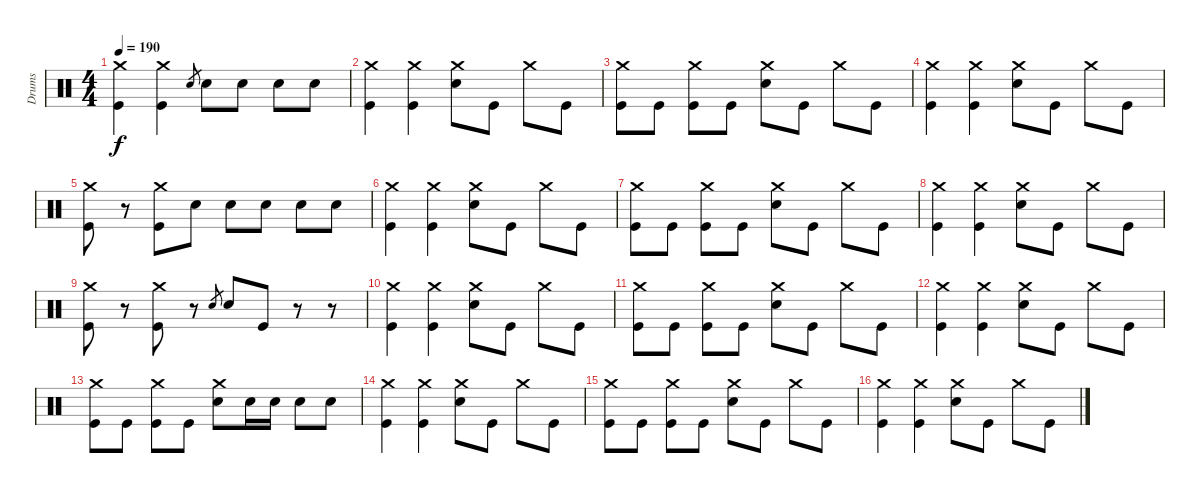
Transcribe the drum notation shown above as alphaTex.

\track ("Drums" "Drums") {instrument percussion}
\staff {score}
\articulation defaults
\ts (4 4)
\tempo 190
\clef neutral
\ks c
("Crash medium (hit)" "Kick (hit)").4{dy f} ("Crash medium (hit)" "Kick (hit)").4 "Electric Snare (hit)".8{gr} "Electric Snare (hit)".8 "Electric Snare (hit)".8 "Electric Snare (hit)".8 "Electric Snare (hit)".8 |
("Crash medium (hit)" "Kick (hit)").4 ("Crash medium (hit)" "Kick (hit)").4 ("Crash medium (hit)" "Electric Snare (hit)").8 "Kick (hit)".8 "Crash medium (hit)".8 "Kick (hit)".8 |
("Crash medium (hit)" "Kick (hit)").8 "Kick (hit)".8 ("Crash medium (hit)" "Kick (hit)").8 "Kick (hit)".8 ("Crash medium (hit)" "Electric Snare (hit)").8 "Kick (hit)".8 "Crash medium (hit)".8 "Kick (hit)".8 |
("Crash medium (hit)" "Kick (hit)").4 ("Crash medium (hit)" "Kick (hit)").4 ("Crash medium (hit)" "Electric Snare (hit)").8 "Kick (hit)".8 "Crash medium (hit)".8 "Kick (hit)".8 |
("Crash medium (hit)" "Kick (hit)").8 r.8 ("Crash medium (hit)" "Kick (hit)").8 "Electric Snare (hit)".8 "Electric Snare (hit)".8 "Electric Snare (hit)".8 "Electric Snare (hit)".8 "Electric Snare (hit)".8 |
("Crash medium (hit)" "Kick (hit)").4 ("Crash medium (hit)" "Kick (hit)").4 ("Crash medium (hit)" "Electric Snare (hit)").8 "Kick (hit)".8 "Crash medium (hit)".8 "Kick (hit)".8 |
("Crash medium (hit)" "Kick (hit)").8 "Kick (hit)".8 ("Crash medium (hit)" "Kick (hit)").8 "Kick (hit)".8 ("Crash medium (hit)" "Electric Snare (hit)").8 "Kick (hit)".8 "Crash medium (hit)".8 "Kick (hit)".8 |
("Crash medium (hit)" "Kick (hit)").4 ("Crash medium (hit)" "Kick (hit)").4 ("Crash medium (hit)" "Electric Snare (hit)").8 "Kick (hit)".8 "Crash medium (hit)".8 "Kick (hit)".8 |
("Crash medium (hit)" "Kick (hit)").8 r.8 ("Crash medium (hit)" "Kick (hit)").8 r.8 "Electric Snare (hit)".8{gr} "Electric Snare (hit)".8 "Kick (hit)".8 r.8 r.8 |
("Crash medium (hit)" "Kick (hit)").4 ("Crash medium (hit)" "Kick (hit)").4 ("Crash medium (hit)" "Electric Snare (hit)").8 "Kick (hit)".8 "Crash medium (hit)".8 "Kick (hit)".8 |
("Crash medium (hit)" "Kick (hit)").8 "Kick (hit)".8 ("Crash medium (hit)" "Kick (hit)").8 "Kick (hit)".8 ("Crash medium (hit)" "Electric Snare (hit)").8 "Kick (hit)".8 "Crash medium (hit)".8 "Kick (hit)".8 |
("Crash medium (hit)" "Kick (hit)").4 ("Crash medium (hit)" "Kick (hit)").4 ("Crash medium (hit)" "Electric Snare (hit)").8 "Kick (hit)".8 "Crash medium (hit)".8 "Kick (hit)".8 |
("Crash medium (hit)" "Kick (hit)").8 "Kick (hit)".8 ("Crash medium (hit)" "Kick (hit)").8 "Kick (hit)".8 ("Crash medium (hit)" "Electric Snare (hit)").8 "Electric Snare (hit)".16 "Electric Snare (hit)".16 "Electric Snare (hit)".8 "Electric Snare (hit)".8 |
("Crash medium (hit)" "Kick (hit)").4 ("Crash medium (hit)" "Kick (hit)").4 ("Crash medium (hit)" "Electric Snare (hit)").8 "Kick (hit)".8 "Crash medium (hit)".8 "Kick (hit)".8 |
("Crash medium (hit)" "Kick (hit)").8 "Kick (hit)".8 ("Crash medium (hit)" "Kick (hit)").8 "Kick (hit)".8 ("Crash medium (hit)" "Electric Snare (hit)").8 "Kick (hit)".8 "Crash medium (hit)".8 "Kick (hit)".8 |
("Crash medium (hit)" "Kick (hit)").4 ("Crash medium (hit)" "Kick (hit)").4 ("Crash medium (hit)" "Electric Snare (hit)").8 "Kick (hit)".8 "Crash medium (hit)".8 "Kick (hit)".8
